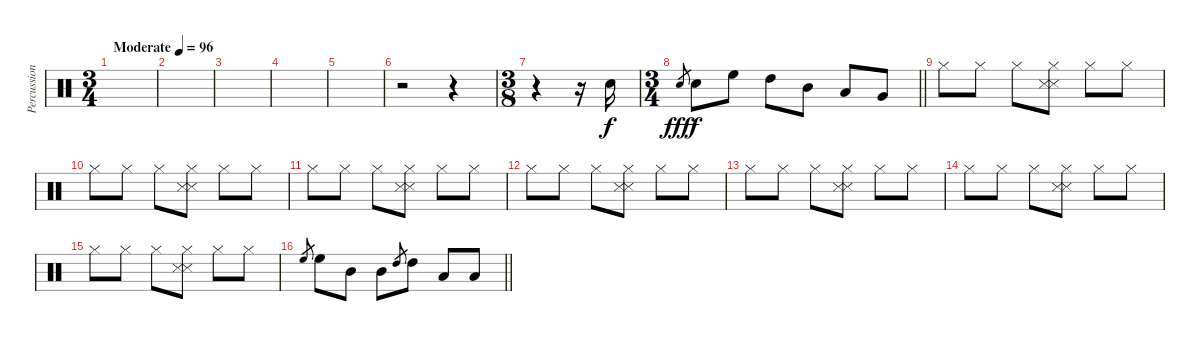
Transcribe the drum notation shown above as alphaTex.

\track ("Percussion" "Percussion") {instrument percussion}
\staff {score}
\articulation defaults
\ts (3 4)
\tempo (96 "Moderate")
\clef neutral
\ks c
|
|
|
|
|
r.2 r.4 |
\ts (3 8)
r.4 r.16 "Snare (hit) 2".16 |
\ts (3 4)
\barLineRight lightlight "Snare (hit) 2".8{gr dy fff} "Snare (hit) 2".8{dy f} "High Floor Tom (hit)".8 "High Tom (hit)".8 "Mid Tom (hit)".8 "Low Tom (hit)".8 "Very Low Tom (hit)".8
|
"Hi-Hat (closed)".8 "Hi-Hat (closed)".8 "Hi-Hat (closed)".8 ("Hi-Hat (closed)" "Snare (side stick) 3" "Snare (side stick) 3").8 "Hi-Hat (closed)".8 "Hi-Hat (closed)".8 |
"Hi-Hat (closed)".8 "Hi-Hat (closed)".8 "Hi-Hat (closed)".8 ("Hi-Hat (closed)" "Snare (side stick) 3" "Snare (side stick) 3").8 "Hi-Hat (closed)".8 "Hi-Hat (closed)".8 |
"Hi-Hat (closed)".8 "Hi-Hat (closed)".8 "Hi-Hat (closed)".8 ("Hi-Hat (closed)" "Snare (side stick) 3" "Snare (side stick) 3").8 "Hi-Hat (closed)".8 "Hi-Hat (closed)".8 |
"Hi-Hat (closed)".8 "Hi-Hat (closed)".8 "Hi-Hat (closed)".8 ("Hi-Hat (closed)" "Snare (side stick) 3" "Snare (side stick) 3").8 "Hi-Hat (closed)".8 "Hi-Hat (closed)".8 |
"Hi-Hat (closed)".8 "Hi-Hat (closed)".8 "Hi-Hat (closed)".8 ("Hi-Hat (closed)" "Snare (side stick) 3" "Snare (side stick) 3").8 "Hi-Hat (closed)".8 "Hi-Hat (closed)".8 |
"Hi-Hat (closed)".8 "Hi-Hat (closed)".8 "Hi-Hat (closed)".8 ("Hi-Hat (closed)" "Snare (side stick) 3" "Snare (side stick) 3").8 "Hi-Hat (closed)".8 "Hi-Hat (closed)".8 |
"Hi-Hat (closed)".8 "Hi-Hat (closed)".8 "Hi-Hat (closed)".8 ("Hi-Hat (closed)" "Snare (side stick) 3" "Snare (side stick) 3").8 "Hi-Hat (closed)".8 "Hi-Hat (closed)".8 |
\barLineRight lightlight "High Floor Tom (hit)".8{gr} "High Floor Tom (hit)".8 "Mid Tom (hit)".8 "Mid Tom (hit)".8 "High Tom (hit)".8{gr} "High Tom (hit)".8 "Low Tom (hit)".8 "Low Tom (hit)".8
